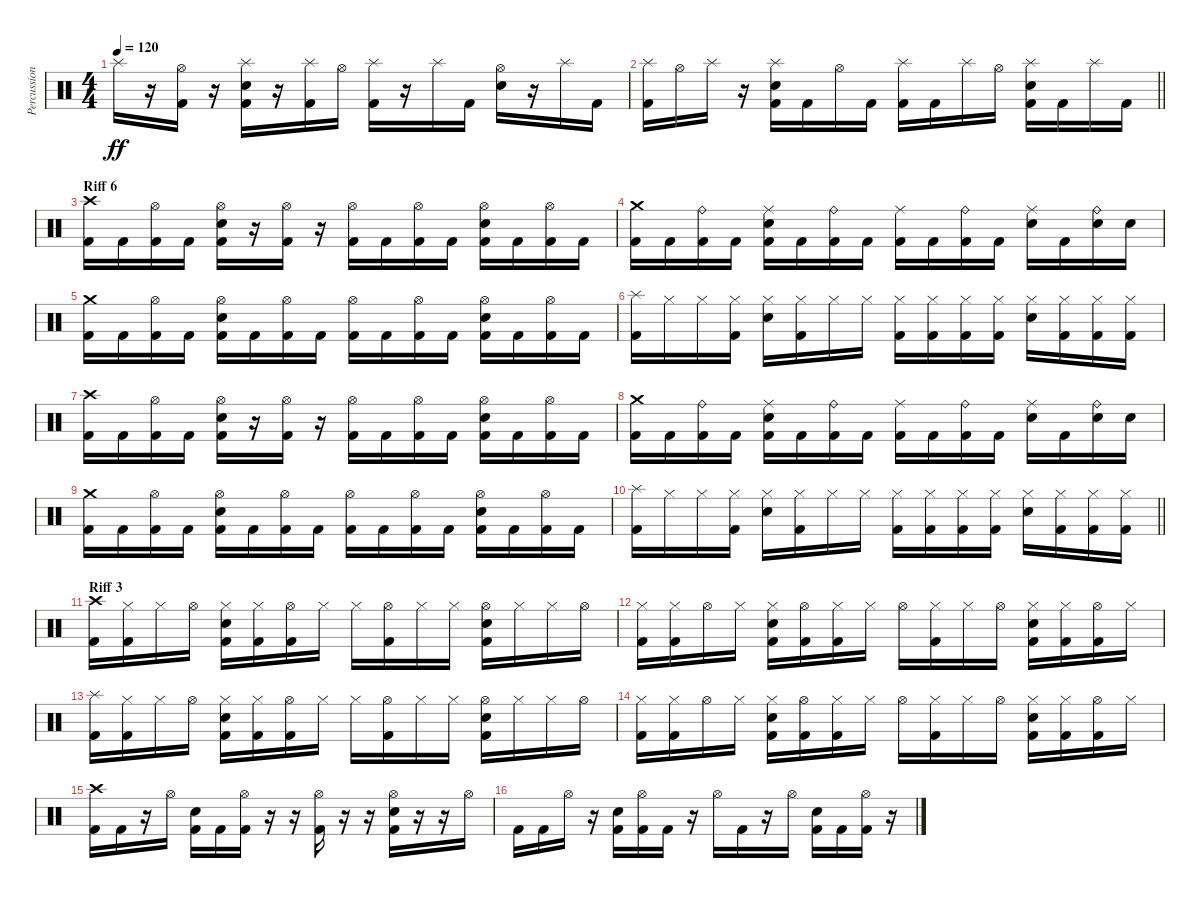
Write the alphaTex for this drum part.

\track ("Percussion" "Percussion") {instrument percussion}
\staff {score}
\articulation defaults
\ts (4 4)
\tempo 120
\clef neutral
\ks c "Splash (hit)".16{dy ff}
r.16 ("Hi-Hat (open)" "Kick (hit) 2").16 r.16 ("Splash (hit)" "Electric Snare (hit)" "Kick (hit) 2").16 r.16 ("Splash (hit)" "Kick (hit) 2").16 "Hi-Hat (open)".16 ("Splash (hit)" "Kick (hit) 2").16 r.16 "Splash (hit)".16 "Kick (hit) 2".16 ("Hi-Hat (open)" "Electric Snare (hit)").16 r.16 "Splash (hit)".16 "Kick (hit) 2".16 |
\barLineRight lightlight
("Splash (hit)" "Kick (hit) 2").16 "Hi-Hat (open)".16 "Splash (hit)".16 r.16 ("Splash (hit)" "Electric Snare (hit)" "Kick (hit) 2").16 "Kick (hit) 2".16 "Hi-Hat (open)".16 "Kick (hit) 2".16 ("Splash (hit)" "Kick (hit) 2").16 "Kick (hit) 2".16 "Splash (hit)".16 "Hi-Hat (open)".16 ("Splash (hit)" "Electric Snare (hit)" "Kick (hit) 2").16 "Kick (hit) 2".16 "Splash (hit)".16 "Kick (hit) 2".16 |
\section ("" "Riff 6")
("Crash high (hit)" "Kick (hit) 2").16 "Kick (hit) 2".16 ("Hi-Hat (open)" "Kick (hit) 2").16 "Kick (hit) 2".16 ("Hi-Hat (open)" "Electric Snare (hit)" "Kick (hit) 2").16 r.16 ("Hi-Hat (open)" "Kick (hit) 2").16 r.16 ("Hi-Hat (open)" "Kick (hit) 2").16 "Kick (hit) 2".16 ("Hi-Hat (open)" "Kick (hit) 2").16 "Kick (hit) 2".16 ("Hi-Hat (open)" "Electric Snare (hit)" "Kick (hit) 2").16 "Kick (hit) 2".16 ("Hi-Hat (open)" "Kick (hit) 2").16 "Kick (hit) 2".16 |
("Crash medium (hit)" "Kick (hit) 2").16 "Kick (hit) 2".16 ("Ride (bell)" "Kick (hit) 2").16 "Kick (hit) 2".16 ("Ride (middle)" "Electric Snare (hit)" "Kick (hit) 2").16 "Kick (hit) 2".16 ("Ride (bell)" "Kick (hit) 2").16 "Kick (hit) 2".16 ("Ride (middle)" "Kick (hit) 2").16 "Kick (hit) 2".16 ("Ride (bell)" "Kick (hit) 2").16 "Kick (hit) 2".16 ("Ride (middle)" "Electric Snare (hit)").16 "Kick (hit) 2".16 ("Ride (bell)" "Electric Snare (hit)").16 "Electric Snare (hit)".16 |
("Crash medium (hit)" "Kick (hit) 2").16 "Kick (hit) 2".16 ("Hi-Hat (open)" "Kick (hit) 2").16 "Kick (hit) 2".16 ("Hi-Hat (open)" "Electric Snare (hit)" "Kick (hit) 2").16 "Kick (hit) 2".16 ("Hi-Hat (open)" "Kick (hit) 2").16 "Kick (hit) 2".16 ("Hi-Hat (open)" "Kick (hit) 2").16 "Kick (hit) 2".16 ("Hi-Hat (open)" "Kick (hit) 2").16 "Kick (hit) 2".16 ("Hi-Hat (open)" "Electric Snare (hit)" "Kick (hit) 2").16 "Kick (hit) 2".16 ("Hi-Hat (open)" "Kick (hit) 2").16 "Kick (hit) 2".16 |
("Splash (hit)" "Kick (hit) 2").16 "Hi-Hat (closed)".16 "Hi-Hat (closed)".16 ("Hi-Hat (closed)" "Kick (hit) 2").16 ("Hi-Hat (closed)" "Electric Snare (hit)").16 ("Hi-Hat (closed)" "Kick (hit) 2").16 "Hi-Hat (closed)".16 "Hi-Hat (closed)".16 ("Hi-Hat (closed)" "Kick (hit) 2").16 ("Hi-Hat (closed)" "Kick (hit) 2").16 ("Hi-Hat (closed)" "Kick (hit) 2").16 ("Hi-Hat (closed)" "Kick (hit) 2").16 ("Hi-Hat (closed)" "Electric Snare (hit)").16 ("Hi-Hat (closed)" "Kick (hit) 2").16 ("Hi-Hat (closed)" "Kick (hit) 2").16 ("Hi-Hat (closed)" "Kick (hit) 2").16 |
("Crash high (hit)" "Kick (hit) 2").16 "Kick (hit) 2".16 ("Hi-Hat (open)" "Kick (hit) 2").16 "Kick (hit) 2".16 ("Hi-Hat (open)" "Electric Snare (hit)" "Kick (hit) 2").16 r.16 ("Hi-Hat (open)" "Kick (hit) 2").16 r.16 ("Hi-Hat (open)" "Kick (hit) 2").16 "Kick (hit) 2".16 ("Hi-Hat (open)" "Kick (hit) 2").16 "Kick (hit) 2".16 ("Hi-Hat (open)" "Electric Snare (hit)" "Kick (hit) 2").16 "Kick (hit) 2".16 ("Hi-Hat (open)" "Kick (hit) 2").16 "Kick (hit) 2".16 |
("Crash medium (hit)" "Kick (hit) 2").16 "Kick (hit) 2".16 ("Ride (bell)" "Kick (hit) 2").16 "Kick (hit) 2".16 ("Ride (middle)" "Electric Snare (hit)" "Kick (hit) 2").16 "Kick (hit) 2".16 ("Ride (bell)" "Kick (hit) 2").16 "Kick (hit) 2".16 ("Ride (middle)" "Kick (hit) 2").16 "Kick (hit) 2".16 ("Ride (bell)" "Kick (hit) 2").16 "Kick (hit) 2".16 ("Ride (middle)" "Electric Snare (hit)").16 "Kick (hit) 2".16 ("Ride (bell)" "Electric Snare (hit)").16 "Electric Snare (hit)".16 |
("Crash medium (hit)" "Kick (hit) 2").16 "Kick (hit) 2".16 ("Hi-Hat (open)" "Kick (hit) 2").16 "Kick (hit) 2".16 ("Hi-Hat (open)" "Electric Snare (hit)" "Kick (hit) 2").16 "Kick (hit) 2".16 ("Hi-Hat (open)" "Kick (hit) 2").16 "Kick (hit) 2".16 ("Hi-Hat (open)" "Kick (hit) 2").16 "Kick (hit) 2".16 ("Hi-Hat (open)" "Kick (hit) 2").16 "Kick (hit) 2".16 ("Hi-Hat (open)" "Electric Snare (hit)" "Kick (hit) 2").16 "Kick (hit) 2".16 ("Hi-Hat (open)" "Kick (hit) 2").16 "Kick (hit) 2".16 |
\barLineRight lightlight
("Splash (hit)" "Kick (hit) 2").16 "Hi-Hat (closed)".16 "Hi-Hat (closed)".16 ("Hi-Hat (closed)" "Kick (hit) 2").16 ("Hi-Hat (closed)" "Electric Snare (hit)").16 ("Hi-Hat (closed)" "Kick (hit) 2").16 "Hi-Hat (closed)".16 "Hi-Hat (closed)".16 ("Hi-Hat (closed)" "Kick (hit) 2").16 ("Hi-Hat (closed)" "Kick (hit) 2").16 ("Hi-Hat (closed)" "Kick (hit) 2").16 ("Hi-Hat (closed)" "Kick (hit) 2").16 ("Hi-Hat (closed)" "Electric Snare (hit)").16 ("Hi-Hat (closed)" "Kick (hit) 2").16 ("Hi-Hat (closed)" "Kick (hit) 2").16 ("Hi-Hat (closed)" "Kick (hit) 2").16 |
\section ("" "Riff 3")
("Crash high (hit)" "Kick (hit) 2").16 ("Hi-Hat (closed)" "Kick (hit) 2").16 "Hi-Hat (closed)".16 "Hi-Hat (open)".16 ("Hi-Hat (closed)" "Electric Snare (hit)" "Kick (hit) 2").16 ("Hi-Hat (closed)" "Kick (hit) 2").16 ("Hi-Hat (open)" "Kick (hit) 2").16 "Hi-Hat (closed)".16 "Hi-Hat (closed)".16 ("Hi-Hat (open)" "Kick (hit) 2").16 "Hi-Hat (closed)".16 "Hi-Hat (closed)".16 ("Hi-Hat (open)" "Electric Snare (hit)" "Kick (hit) 2").16 "Hi-Hat (closed)".16 "Hi-Hat (closed)".16 "Hi-Hat (open)".16 |
("Hi-Hat (closed)" "Kick (hit) 2").16 ("Hi-Hat (closed)" "Kick (hit) 2").16 "Hi-Hat (open)".16 "Hi-Hat (closed)".16 ("Hi-Hat (closed)" "Electric Snare (hit)" "Kick (hit) 2").16 ("Hi-Hat (open)" "Kick (hit) 2").16 ("Hi-Hat (closed)" "Kick (hit) 2").16 "Hi-Hat (closed)".16 "Hi-Hat (open)".16 ("Hi-Hat (closed)" "Kick (hit) 2").16 "Hi-Hat (closed)".16 "Hi-Hat (open)".16 ("Hi-Hat (closed)" "Electric Snare (hit)" "Kick (hit) 2").16 ("Hi-Hat (closed)" "Kick (hit) 2").16 ("Hi-Hat (open)" "Kick (hit) 2").16 "Hi-Hat (closed)".16 |
("Splash (hit)" "Kick (hit) 2").16 ("Hi-Hat (closed)" "Kick (hit) 2").16 "Hi-Hat (closed)".16 "Hi-Hat (open)".16 ("Hi-Hat (closed)" "Electric Snare (hit)" "Kick (hit) 2").16 ("Hi-Hat (closed)" "Kick (hit) 2").16 ("Hi-Hat (open)" "Kick (hit) 2").16 "Hi-Hat (closed)".16 "Hi-Hat (closed)".16 ("Hi-Hat (open)" "Kick (hit) 2").16 "Hi-Hat (closed)".16 "Hi-Hat (closed)".16 ("Hi-Hat (open)" "Electric Snare (hit)" "Kick (hit) 2").16 "Hi-Hat (closed)".16 "Hi-Hat (closed)".16 "Hi-Hat (open)".16 |
("Hi-Hat (closed)" "Kick (hit) 2").16 ("Hi-Hat (closed)" "Kick (hit) 2").16 "Hi-Hat (open)".16 "Hi-Hat (closed)".16 ("Hi-Hat (closed)" "Electric Snare (hit)" "Kick (hit) 2").16 ("Hi-Hat (open)" "Kick (hit) 2").16 ("Hi-Hat (closed)" "Kick (hit) 2").16 "Hi-Hat (closed)".16 "Hi-Hat (open)".16 ("Hi-Hat (closed)" "Kick (hit) 2").16 "Hi-Hat (closed)".16 "Hi-Hat (open)".16 ("Hi-Hat (closed)" "Electric Snare (hit)" "Kick (hit) 2").16 ("Hi-Hat (closed)" "Kick (hit) 2").16 ("Hi-Hat (open)" "Kick (hit) 2").16 "Hi-Hat (closed)".16 |
("Crash high (hit)" "Kick (hit) 2").16 "Kick (hit) 2".16 r.16 "Hi-Hat (open)".16 ("Electric Snare (hit)" "Kick (hit) 2").16 "Kick (hit) 2".16 ("Hi-Hat (open)" "Kick (hit) 2").16 r.16 r.16 ("Hi-Hat (open)" "Kick (hit) 2").16 r.16 r.16 ("Hi-Hat (open)" "Electric Snare (hit)" "Kick (hit) 2").16 r.16 r.16 "Hi-Hat (open)".16 |
"Kick (hit) 2".16 "Kick (hit) 2".16 "Hi-Hat (open)".16 r.16 ("Electric Snare (hit)" "Kick (hit) 2").16 ("Hi-Hat (open)" "Kick (hit) 2").16 "Kick (hit) 2".16 r.16 "Hi-Hat (open)".16 "Kick (hit) 2".16 r.16 "Hi-Hat (open)".16 ("Electric Snare (hit)" "Kick (hit) 2").16 "Kick (hit) 2".16 ("Hi-Hat (open)" "Kick (hit) 2").16 r.16
